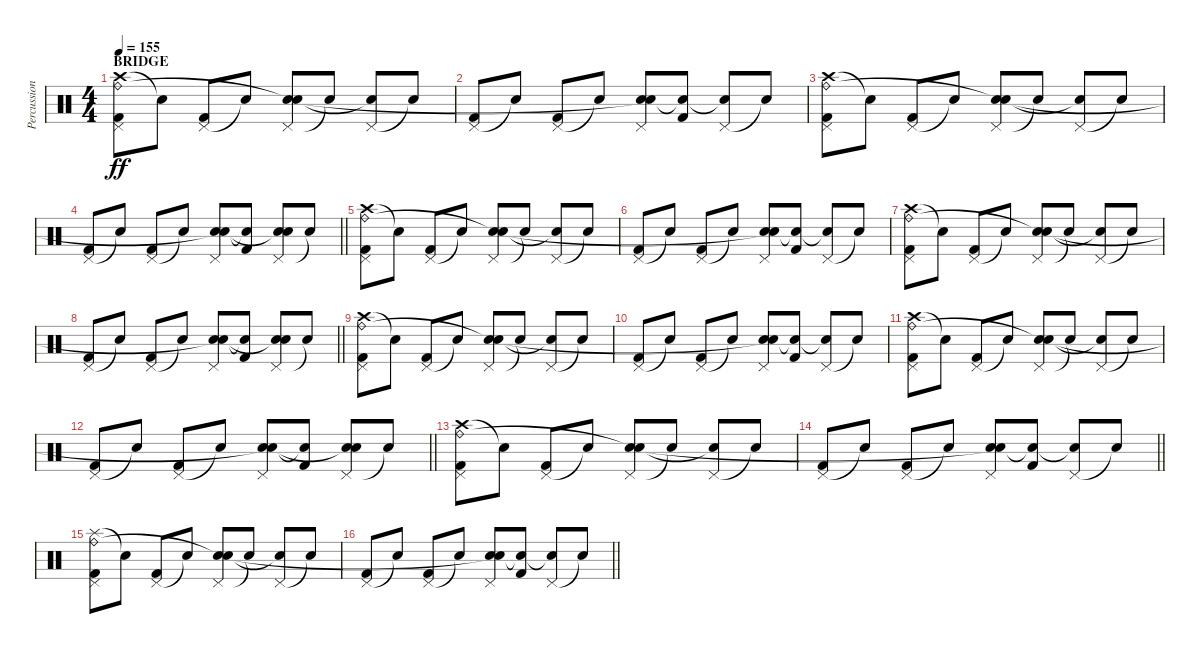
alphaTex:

\track ("Percussion" "Percussion") {instrument percussion}
\staff {score}
\articulation defaults
\ts (4 4)
\section ("" "BRIDGE")
\tempo 155
\clef neutral
\ks c
("Crash high (hit)" "Pedal Hi-Hat (hit)" "Ride (bell)" "Kick (hit) 2").8{dy ff} "Snare (hit)"{t}.8 ("Pedal Hi-Hat (hit)" "Kick (hit) 2").8 "Snare (hit)"{t}.8 ("Pedal Hi-Hat (hit)" "Snare (hit) 2" "Snare (hit)"{t}).8 "Snare (hit)"{t}.8 ("Pedal Hi-Hat (hit)" "Snare (hit)"{t}).8 "Snare (hit)"{t}.8 |
("Pedal Hi-Hat (hit)" "Kick (hit) 2").8 "Snare (hit)"{t}.8 ("Pedal Hi-Hat (hit)" "Kick (hit) 2").8 "Snare (hit)"{t}.8 ("Pedal Hi-Hat (hit)" "Snare (hit) 2" "Snare (hit)"{t}).8 ("Kick (hit) 2" "Snare (hit)"{t}).8 ("Pedal Hi-Hat (hit)" "Snare (hit)"{t}).8 "Snare (hit)"{t}.8 |
("Crash high (hit)" "Pedal Hi-Hat (hit)" "Ride (bell)" "Kick (hit) 2").8 "Snare (hit)"{t}.8 ("Pedal Hi-Hat (hit)" "Kick (hit) 2").8 "Snare (hit)"{t}.8 ("Pedal Hi-Hat (hit)" "Snare (hit) 2" "Snare (hit)"{t}).8 "Snare (hit)"{t}.8 ("Pedal Hi-Hat (hit)" "Snare (hit)"{t}).8 "Snare (hit)"{t}.8 |
\barLineRight lightlight
("Pedal Hi-Hat (hit)" "Kick (hit) 2").8 "Snare (hit)"{t}.8 ("Pedal Hi-Hat (hit)" "Kick (hit) 2").8 "Snare (hit)"{t}.8 ("Pedal Hi-Hat (hit)" "Snare (hit) 2" "Snare (hit)"{t}).8 ("Kick (hit) 2" "Snare (hit)"{t}).8 ("Pedal Hi-Hat (hit)" "Snare (hit) 2" "Snare (hit)"{t}).8 "Snare (hit)"{t}.8 |
("Crash high (hit)" "Pedal Hi-Hat (hit)" "Ride (bell)" "Kick (hit) 2").8 "Snare (hit)"{t}.8 ("Pedal Hi-Hat (hit)" "Kick (hit) 2").8 "Snare (hit)"{t}.8 ("Pedal Hi-Hat (hit)" "Snare (hit) 2" "Snare (hit)"{t}).8 "Snare (hit)"{t}.8 ("Pedal Hi-Hat (hit)" "Snare (hit)"{t}).8 "Snare (hit)"{t}.8 |
("Pedal Hi-Hat (hit)" "Kick (hit) 2").8 "Snare (hit)"{t}.8 ("Pedal Hi-Hat (hit)" "Kick (hit) 2").8 "Snare (hit)"{t}.8 ("Pedal Hi-Hat (hit)" "Snare (hit) 2" "Snare (hit)"{t}).8 ("Kick (hit) 2" "Snare (hit)"{t}).8 ("Pedal Hi-Hat (hit)" "Snare (hit)"{t}).8 "Snare (hit)"{t}.8 |
("Crash high (hit)" "Pedal Hi-Hat (hit)" "Ride (bell)" "Kick (hit) 2").8 "Snare (hit)"{t}.8 ("Pedal Hi-Hat (hit)" "Kick (hit) 2").8 "Snare (hit)"{t}.8 ("Pedal Hi-Hat (hit)" "Snare (hit) 2" "Snare (hit)"{t}).8 "Snare (hit)"{t}.8 ("Pedal Hi-Hat (hit)" "Snare (hit)"{t}).8 "Snare (hit)"{t}.8 |
\barLineRight lightlight
("Pedal Hi-Hat (hit)" "Kick (hit) 2").8 "Snare (hit)"{t}.8 ("Pedal Hi-Hat (hit)" "Kick (hit) 2").8 "Snare (hit)"{t}.8 ("Pedal Hi-Hat (hit)" "Snare (hit) 2" "Snare (hit)"{t}).8 ("Kick (hit) 2" "Snare (hit)"{t}).8 ("Pedal Hi-Hat (hit)" "Snare (hit) 2" "Snare (hit)"{t}).8 "Snare (hit)"{t}.8 |
("Crash high (hit)" "Pedal Hi-Hat (hit)" "Ride (bell)" "Kick (hit) 2").8 "Snare (hit)"{t}.8 ("Pedal Hi-Hat (hit)" "Kick (hit) 2").8 "Snare (hit)"{t}.8 ("Pedal Hi-Hat (hit)" "Snare (hit) 2" "Snare (hit)"{t}).8 "Snare (hit)"{t}.8 ("Pedal Hi-Hat (hit)" "Snare (hit)"{t}).8 "Snare (hit)"{t}.8 |
("Pedal Hi-Hat (hit)" "Kick (hit) 2").8 "Snare (hit)"{t}.8 ("Pedal Hi-Hat (hit)" "Kick (hit) 2").8 "Snare (hit)"{t}.8 ("Pedal Hi-Hat (hit)" "Snare (hit) 2" "Snare (hit)"{t}).8 ("Kick (hit) 2" "Snare (hit)"{t}).8 ("Pedal Hi-Hat (hit)" "Snare (hit)"{t}).8 "Snare (hit)"{t}.8 |
("Crash high (hit)" "Pedal Hi-Hat (hit)" "Ride (bell)" "Kick (hit) 2").8 "Snare (hit)"{t}.8 ("Pedal Hi-Hat (hit)" "Kick (hit) 2").8 "Snare (hit)"{t}.8 ("Pedal Hi-Hat (hit)" "Snare (hit) 2" "Snare (hit)"{t}).8 "Snare (hit)"{t}.8 ("Pedal Hi-Hat (hit)" "Snare (hit)"{t}).8 "Snare (hit)"{t}.8 |
\barLineRight lightlight
("Pedal Hi-Hat (hit)" "Kick (hit) 2").8 "Snare (hit)"{t}.8 ("Pedal Hi-Hat (hit)" "Kick (hit) 2").8 "Snare (hit)"{t}.8 ("Pedal Hi-Hat (hit)" "Snare (hit) 2" "Snare (hit)"{t}).8 ("Kick (hit) 2" "Snare (hit)"{t}).8 ("Pedal Hi-Hat (hit)" "Snare (hit) 2" "Snare (hit)"{t}).8 "Snare (hit)"{t}.8 |
("Crash high (hit)" "Pedal Hi-Hat (hit)" "Ride (bell)" "Kick (hit) 2").8 "Snare (hit)"{t}.8 ("Pedal Hi-Hat (hit)" "Kick (hit) 2").8 "Snare (hit)"{t}.8 ("Pedal Hi-Hat (hit)" "Snare (hit) 2" "Snare (hit)"{t}).8 "Snare (hit)"{t}.8 ("Pedal Hi-Hat (hit)" "Snare (hit)"{t}).8 "Snare (hit)"{t}.8 |
\barLineRight lightlight
("Pedal Hi-Hat (hit)" "Kick (hit) 2").8 "Snare (hit)"{t}.8 ("Pedal Hi-Hat (hit)" "Kick (hit) 2").8 "Snare (hit)"{t}.8 ("Pedal Hi-Hat (hit)" "Snare (hit) 2" "Snare (hit)"{t}).8 ("Kick (hit) 2" "Snare (hit)"{t}).8 ("Pedal Hi-Hat (hit)" "Snare (hit)"{t}).8 "Snare (hit)"{t}.8 |
("Splash (hit)" "Pedal Hi-Hat (hit)" "Ride (bell)" "Kick (hit) 2").8 "Snare (hit)"{t}.8 ("Pedal Hi-Hat (hit)" "Kick (hit) 2").8 "Snare (hit)"{t}.8 ("Pedal Hi-Hat (hit)" "Snare (hit) 2" "Snare (hit)"{t}).8 "Snare (hit)"{t}.8 ("Pedal Hi-Hat (hit)" "Snare (hit)"{t}).8 "Snare (hit)"{t}.8 |
\barLineRight lightlight
("Pedal Hi-Hat (hit)" "Kick (hit) 2").8 "Snare (hit)"{t}.8 ("Pedal Hi-Hat (hit)" "Kick (hit) 2").8 "Snare (hit)"{t}.8 ("Pedal Hi-Hat (hit)" "Snare (hit) 2" "Snare (hit)"{t}).8 ("Kick (hit) 2" "Snare (hit)"{t}).8 ("Pedal Hi-Hat (hit)" "Snare (hit)"{t}).8 "Snare (hit)"{t}.8
